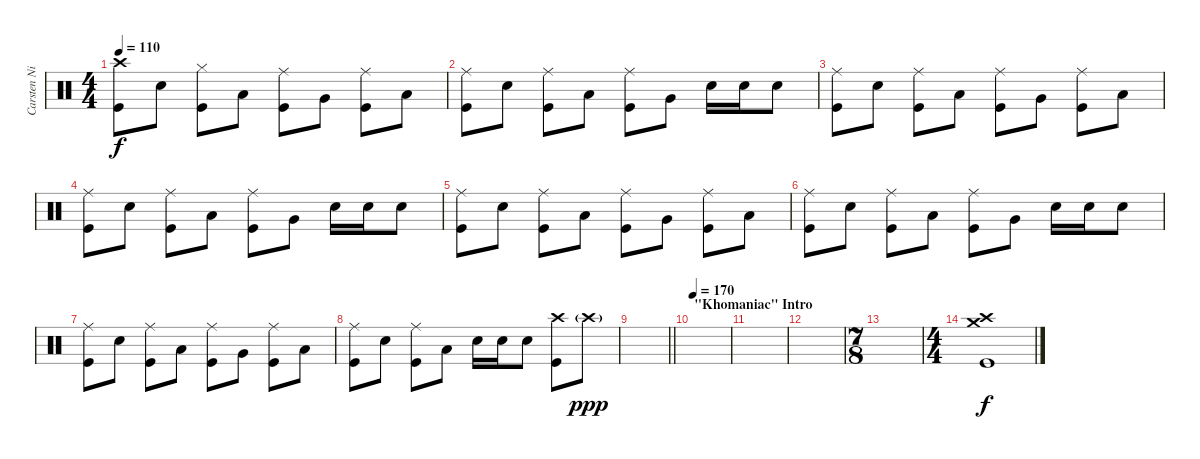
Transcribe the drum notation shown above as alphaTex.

\track ("Carsten Nielsen" "Carsten Ni") {instrument percussion}
\staff {score}
\articulation defaults
\ts (4 4)
\tempo 110
\clef neutral
\ks c
("Crash high (hit)" "Kick (hit)").8{dy f} "Snare (hit) 2".8 ("Hi-Hat (closed)" "Kick (hit)").8 "Low Tom (hit)".8 ("Ride (middle)" "Kick (hit)").8 "Very Low Tom (hit)".8 ("Ride (middle)" "Kick (hit)").8 "Low Floor Tom (hit)".8 |
("Ride (middle)" "Kick (hit)").8 "Snare (hit) 2".8 ("Ride (middle)" "Kick (hit)").8 "Low Tom (hit)".8 ("Ride (middle)" "Kick (hit)").8 "Very Low Tom (hit)".8 "Snare (hit) 2".16 "Snare (hit) 2".16 "Snare (hit) 2".8 |
("Ride (middle)" "Kick (hit)").8 "Snare (hit) 2".8 ("Ride (middle)" "Kick (hit)").8 "Low Tom (hit)".8 ("Ride (middle)" "Kick (hit)").8 "Very Low Tom (hit)".8 ("Ride (middle)" "Kick (hit)").8 "Low Floor Tom (hit)".8 |
("Ride (middle)" "Kick (hit)").8 "Snare (hit) 2".8 ("Ride (middle)" "Kick (hit)").8 "Low Tom (hit)".8 ("Ride (middle)" "Kick (hit)").8 "Very Low Tom (hit)".8 "Snare (hit) 2".16 "Snare (hit) 2".16 "Snare (hit) 2".8 |
("Ride (middle)" "Kick (hit)").8 "Snare (hit) 2".8 ("Ride (middle)" "Kick (hit)").8 "Low Tom (hit)".8 ("Ride (middle)" "Kick (hit)").8 "Very Low Tom (hit)".8 ("Ride (middle)" "Kick (hit)").8 "Low Floor Tom (hit)".8 |
("Ride (middle)" "Kick (hit)").8 "Snare (hit) 2".8 ("Ride (middle)" "Kick (hit)").8 "Low Tom (hit)".8 ("Ride (middle)" "Kick (hit)").8 "Very Low Tom (hit)".8 "Snare (hit) 2".16 "Snare (hit) 2".16 "Snare (hit) 2".8 |
("Ride (middle)" "Kick (hit)").8 "Snare (hit) 2".8 ("Ride (middle)" "Kick (hit)").8 "Low Tom (hit)".8 ("Ride (middle)" "Kick (hit)").8 "Very Low Tom (hit)".8 ("Ride (middle)" "Kick (hit)").8 "Low Floor Tom (hit)".8 |
("Ride (middle)" "Kick (hit)").8 "Snare (hit) 2".8 ("Ride (middle)" "Kick (hit)").8 "Low Tom (hit)".8 "Snare (hit) 2".16 "Snare (hit) 2".16 "Snare (hit) 2".8 ("Crash high (hit)" "Kick (hit)").8 "Crash high (hit)"{g}.8{dy ppp} |
\barLineRight lightlight
|
\section ("" "\"Khomaniac\" Intro")
\tempo 170
|
|
|
\ts (7 8)
|
\ts (4 4)
("Crash high (hit)" "Crash medium (hit)" "Kick (hit)").1{dy f volume 0}
